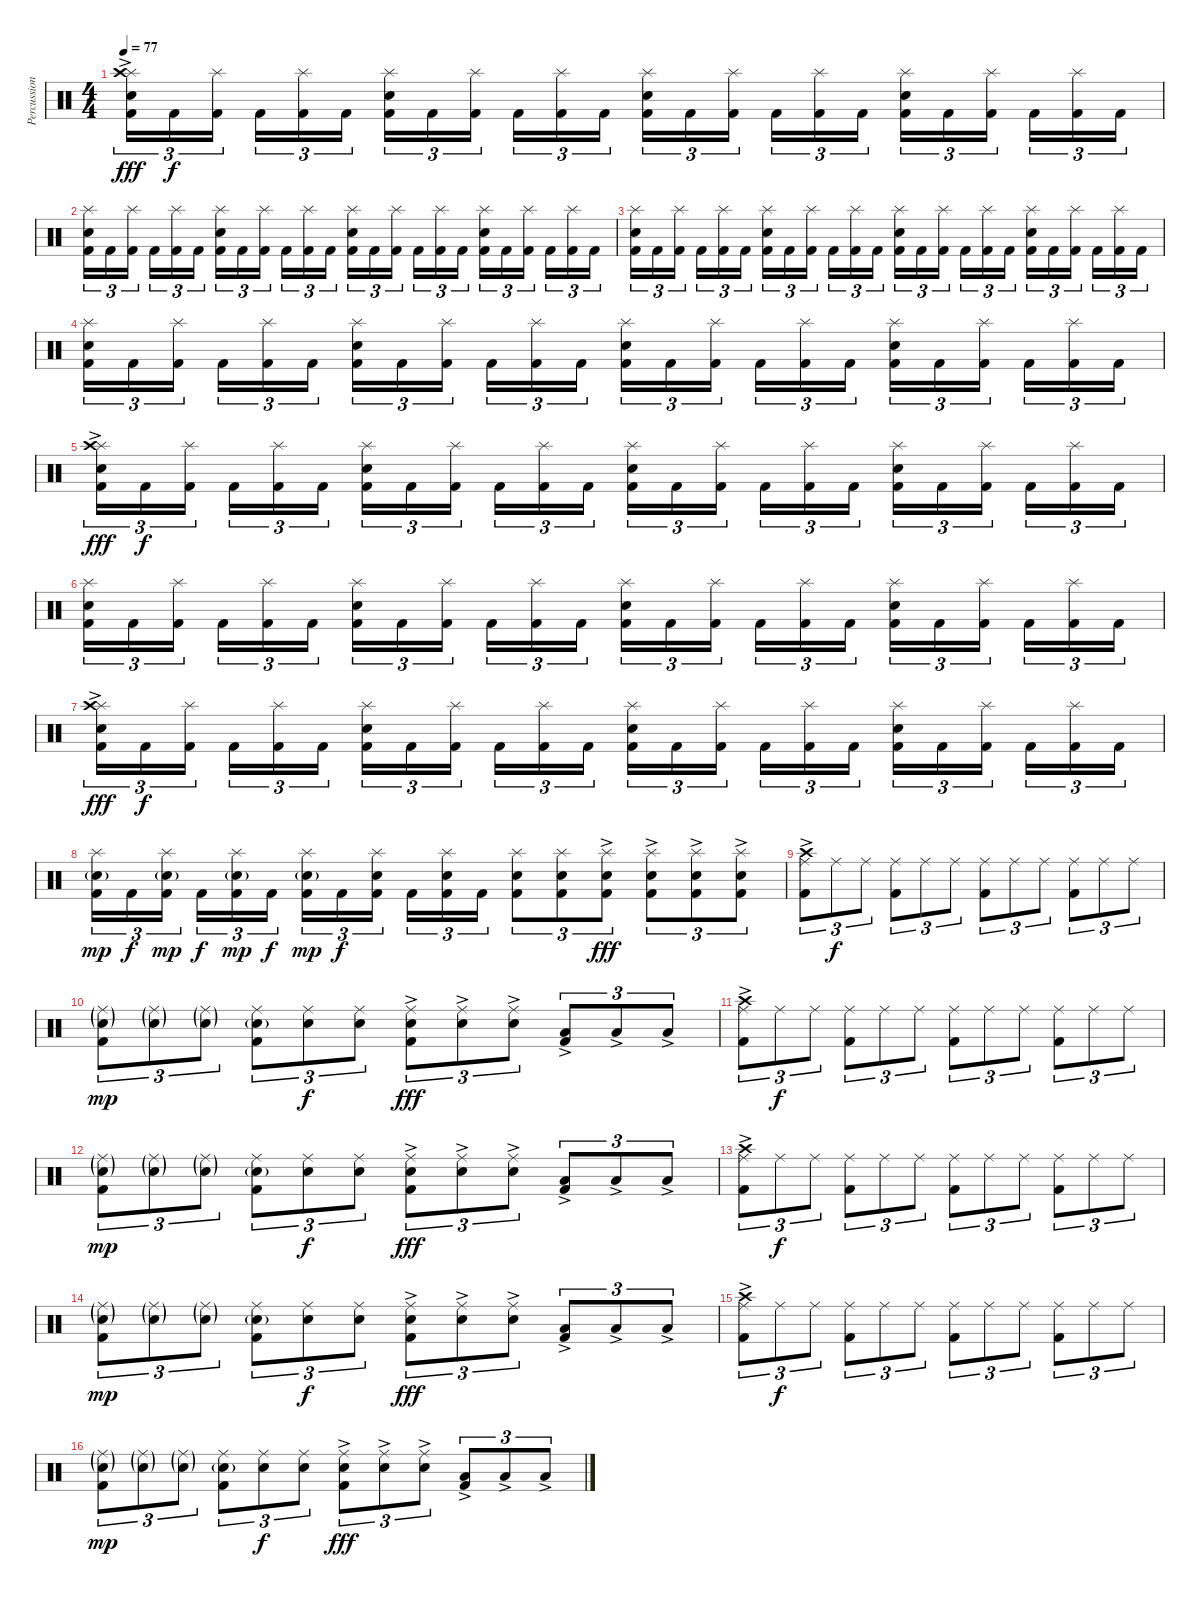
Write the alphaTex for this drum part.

\track ("Percussion" "Percussion") {instrument percussion}
\staff {score}
\articulation defaults
\ts (4 4)
\tempo 77
\clef neutral
\ks c
("Splash (hit)"{ac} "Snare (hit) 2" "Crash high (hit)" "Kick (hit) 2").16{tu (3 2) dy fff} "Kick (hit) 2".16{tu (3 2) dy f} ("Splash (hit)" "Kick (hit) 2").16{tu (3 2)} "Kick (hit) 2".16{tu (3 2)} ("Splash (hit)" "Kick (hit) 2").16{tu (3 2)} "Kick (hit) 2".16{tu (3 2)} ("Splash (hit)" "Snare (hit) 2" "Kick (hit) 2").16{tu (3 2)} "Kick (hit) 2".16{tu (3 2)} ("Splash (hit)" "Kick (hit) 2").16{tu (3 2)} "Kick (hit) 2".16{tu (3 2)} ("Splash (hit)" "Kick (hit) 2").16{tu (3 2)} "Kick (hit) 2".16{tu (3 2)} ("Splash (hit)" "Snare (hit) 2" "Kick (hit) 2").16{tu (3 2)} "Kick (hit) 2".16{tu (3 2)} ("Splash (hit)" "Kick (hit) 2").16{tu (3 2)} "Kick (hit) 2".16{tu (3 2)} ("Splash (hit)" "Kick (hit) 2").16{tu (3 2)} "Kick (hit) 2".16{tu (3 2)} ("Splash (hit)" "Snare (hit) 2" "Kick (hit) 2").16{tu (3 2)} "Kick (hit) 2".16{tu (3 2)} ("Splash (hit)" "Kick (hit) 2").16{tu (3 2)} "Kick (hit) 2".16{tu (3 2)} ("Splash (hit)" "Kick (hit) 2").16{tu (3 2)} "Kick (hit) 2".16{tu (3 2)} |
("Splash (hit)" "Snare (hit) 2" "Kick (hit) 2").16{tu (3 2)} "Kick (hit) 2".16{tu (3 2)} ("Splash (hit)" "Kick (hit) 2").16{tu (3 2)} "Kick (hit) 2".16{tu (3 2)} ("Splash (hit)" "Kick (hit) 2").16{tu (3 2)} "Kick (hit) 2".16{tu (3 2)} ("Splash (hit)" "Snare (hit) 2" "Kick (hit) 2").16{tu (3 2)} "Kick (hit) 2".16{tu (3 2)} ("Splash (hit)" "Kick (hit) 2").16{tu (3 2)} "Kick (hit) 2".16{tu (3 2)} ("Splash (hit)" "Kick (hit) 2").16{tu (3 2)} "Kick (hit) 2".16{tu (3 2)} ("Splash (hit)" "Snare (hit) 2" "Kick (hit) 2").16{tu (3 2)} "Kick (hit) 2".16{tu (3 2)} ("Splash (hit)" "Kick (hit) 2").16{tu (3 2)} "Kick (hit) 2".16{tu (3 2)} ("Splash (hit)" "Kick (hit) 2").16{tu (3 2)} "Kick (hit) 2".16{tu (3 2)} ("Splash (hit)" "Snare (hit) 2" "Kick (hit) 2").16{tu (3 2)} "Kick (hit) 2".16{tu (3 2)} ("Splash (hit)" "Kick (hit) 2").16{tu (3 2)} "Kick (hit) 2".16{tu (3 2)} ("Splash (hit)" "Kick (hit) 2").16{tu (3 2)} "Kick (hit) 2".16{tu (3 2)} |
("Splash (hit)" "Snare (hit) 2" "Kick (hit) 2").16{tu (3 2)} "Kick (hit) 2".16{tu (3 2)} ("Splash (hit)" "Kick (hit) 2").16{tu (3 2)} "Kick (hit) 2".16{tu (3 2)} ("Splash (hit)" "Kick (hit) 2").16{tu (3 2)} "Kick (hit) 2".16{tu (3 2)} ("Splash (hit)" "Snare (hit) 2" "Kick (hit) 2").16{tu (3 2)} "Kick (hit) 2".16{tu (3 2)} ("Splash (hit)" "Kick (hit) 2").16{tu (3 2)} "Kick (hit) 2".16{tu (3 2)} ("Splash (hit)" "Kick (hit) 2").16{tu (3 2)} "Kick (hit) 2".16{tu (3 2)} ("Splash (hit)" "Snare (hit) 2" "Kick (hit) 2").16{tu (3 2)} "Kick (hit) 2".16{tu (3 2)} ("Splash (hit)" "Kick (hit) 2").16{tu (3 2)} "Kick (hit) 2".16{tu (3 2)} ("Splash (hit)" "Kick (hit) 2").16{tu (3 2)} "Kick (hit) 2".16{tu (3 2)} ("Splash (hit)" "Snare (hit) 2" "Kick (hit) 2").16{tu (3 2)} "Kick (hit) 2".16{tu (3 2)} ("Splash (hit)" "Kick (hit) 2").16{tu (3 2)} "Kick (hit) 2".16{tu (3 2)} ("Splash (hit)" "Kick (hit) 2").16{tu (3 2)} "Kick (hit) 2".16{tu (3 2)} |
("Splash (hit)" "Snare (hit) 2" "Kick (hit) 2").16{tu (3 2)} "Kick (hit) 2".16{tu (3 2)} ("Splash (hit)" "Kick (hit) 2").16{tu (3 2)} "Kick (hit) 2".16{tu (3 2)} ("Splash (hit)" "Kick (hit) 2").16{tu (3 2)} "Kick (hit) 2".16{tu (3 2)} ("Splash (hit)" "Snare (hit) 2" "Kick (hit) 2").16{tu (3 2)} "Kick (hit) 2".16{tu (3 2)} ("Splash (hit)" "Kick (hit) 2").16{tu (3 2)} "Kick (hit) 2".16{tu (3 2)} ("Splash (hit)" "Kick (hit) 2").16{tu (3 2)} "Kick (hit) 2".16{tu (3 2)} ("Splash (hit)" "Snare (hit) 2" "Kick (hit) 2").16{tu (3 2)} "Kick (hit) 2".16{tu (3 2)} ("Splash (hit)" "Kick (hit) 2").16{tu (3 2)} "Kick (hit) 2".16{tu (3 2)} ("Splash (hit)" "Kick (hit) 2").16{tu (3 2)} "Kick (hit) 2".16{tu (3 2)} ("Splash (hit)" "Snare (hit) 2" "Kick (hit) 2").16{tu (3 2)} "Kick (hit) 2".16{tu (3 2)} ("Splash (hit)" "Kick (hit) 2").16{tu (3 2)} "Kick (hit) 2".16{tu (3 2)} ("Splash (hit)" "Kick (hit) 2").16{tu (3 2)} "Kick (hit) 2".16{tu (3 2)} |
("Splash (hit)"{ac} "Snare (hit) 2" "Crash high (hit)" "Kick (hit) 2").16{tu (3 2) dy fff} "Kick (hit) 2".16{tu (3 2) dy f} ("Splash (hit)" "Kick (hit) 2").16{tu (3 2)} "Kick (hit) 2".16{tu (3 2)} ("Splash (hit)" "Kick (hit) 2").16{tu (3 2)} "Kick (hit) 2".16{tu (3 2)} ("Splash (hit)" "Snare (hit) 2" "Kick (hit) 2").16{tu (3 2)} "Kick (hit) 2".16{tu (3 2)} ("Splash (hit)" "Kick (hit) 2").16{tu (3 2)} "Kick (hit) 2".16{tu (3 2)} ("Splash (hit)" "Kick (hit) 2").16{tu (3 2)} "Kick (hit) 2".16{tu (3 2)} ("Splash (hit)" "Snare (hit) 2" "Kick (hit) 2").16{tu (3 2)} "Kick (hit) 2".16{tu (3 2)} ("Splash (hit)" "Kick (hit) 2").16{tu (3 2)} "Kick (hit) 2".16{tu (3 2)} ("Splash (hit)" "Kick (hit) 2").16{tu (3 2)} "Kick (hit) 2".16{tu (3 2)} ("Splash (hit)" "Snare (hit) 2" "Kick (hit) 2").16{tu (3 2)} "Kick (hit) 2".16{tu (3 2)} ("Splash (hit)" "Kick (hit) 2").16{tu (3 2)} "Kick (hit) 2".16{tu (3 2)} ("Splash (hit)" "Kick (hit) 2").16{tu (3 2)} "Kick (hit) 2".16{tu (3 2)} |
("Splash (hit)" "Snare (hit) 2" "Kick (hit) 2").16{tu (3 2)} "Kick (hit) 2".16{tu (3 2)} ("Splash (hit)" "Kick (hit) 2").16{tu (3 2)} "Kick (hit) 2".16{tu (3 2)} ("Splash (hit)" "Kick (hit) 2").16{tu (3 2)} "Kick (hit) 2".16{tu (3 2)} ("Splash (hit)" "Snare (hit) 2" "Kick (hit) 2").16{tu (3 2)} "Kick (hit) 2".16{tu (3 2)} ("Splash (hit)" "Kick (hit) 2").16{tu (3 2)} "Kick (hit) 2".16{tu (3 2)} ("Splash (hit)" "Kick (hit) 2").16{tu (3 2)} "Kick (hit) 2".16{tu (3 2)} ("Splash (hit)" "Snare (hit) 2" "Kick (hit) 2").16{tu (3 2)} "Kick (hit) 2".16{tu (3 2)} ("Splash (hit)" "Kick (hit) 2").16{tu (3 2)} "Kick (hit) 2".16{tu (3 2)} ("Splash (hit)" "Kick (hit) 2").16{tu (3 2)} "Kick (hit) 2".16{tu (3 2)} ("Splash (hit)" "Snare (hit) 2" "Kick (hit) 2").16{tu (3 2)} "Kick (hit) 2".16{tu (3 2)} ("Splash (hit)" "Kick (hit) 2").16{tu (3 2)} "Kick (hit) 2".16{tu (3 2)} ("Splash (hit)" "Kick (hit) 2").16{tu (3 2)} "Kick (hit) 2".16{tu (3 2)} |
("Splash (hit)"{ac} "Snare (hit) 2" "Crash high (hit)" "Kick (hit) 2").16{tu (3 2) dy fff} "Kick (hit) 2".16{tu (3 2) dy f} ("Splash (hit)" "Kick (hit) 2").16{tu (3 2)} "Kick (hit) 2".16{tu (3 2)} ("Splash (hit)" "Kick (hit) 2").16{tu (3 2)} "Kick (hit) 2".16{tu (3 2)} ("Splash (hit)" "Snare (hit) 2" "Kick (hit) 2").16{tu (3 2)} "Kick (hit) 2".16{tu (3 2)} ("Splash (hit)" "Kick (hit) 2").16{tu (3 2)} "Kick (hit) 2".16{tu (3 2)} ("Splash (hit)" "Kick (hit) 2").16{tu (3 2)} "Kick (hit) 2".16{tu (3 2)} ("Splash (hit)" "Snare (hit) 2" "Kick (hit) 2").16{tu (3 2)} "Kick (hit) 2".16{tu (3 2)} ("Splash (hit)" "Kick (hit) 2").16{tu (3 2)} "Kick (hit) 2".16{tu (3 2)} ("Splash (hit)" "Kick (hit) 2").16{tu (3 2)} "Kick (hit) 2".16{tu (3 2)} ("Splash (hit)" "Snare (hit) 2" "Kick (hit) 2").16{tu (3 2)} "Kick (hit) 2".16{tu (3 2)} ("Splash (hit)" "Kick (hit) 2").16{tu (3 2)} "Kick (hit) 2".16{tu (3 2)} ("Splash (hit)" "Kick (hit) 2").16{tu (3 2)} "Kick (hit) 2".16{tu (3 2)} |
("Splash (hit)" "Snare (hit) 2"{g} "Kick (hit) 2").16{tu (3 2) dy mp} "Kick (hit) 2".16{tu (3 2) dy f} ("Splash (hit)" "Snare (hit) 2"{g} "Kick (hit) 2").16{tu (3 2) dy mp} "Kick (hit) 2".16{tu (3 2) dy f} ("Splash (hit)" "Snare (hit) 2"{g} "Kick (hit) 2").16{tu (3 2) dy mp} "Kick (hit) 2".16{tu (3 2) dy f} ("Splash (hit)" "Snare (hit) 2"{g} "Kick (hit) 2").16{tu (3 2) dy mp} "Kick (hit) 2".16{tu (3 2) dy f} ("Splash (hit)" "Snare (hit) 2" "Kick (hit) 2").16{tu (3 2)} "Kick (hit) 2".16{tu (3 2)} ("Splash (hit)" "Snare (hit) 2" "Kick (hit) 2").16{tu (3 2)} "Kick (hit) 2".16{tu (3 2)} ("Splash (hit)" "Snare (hit) 2" "Kick (hit) 2").8{tu (3 2)} ("Splash (hit)" "Snare (hit) 2" "Kick (hit) 2").8{tu (3 2)} ("Splash (hit)" "Snare (hit) 2"{ac} "Kick (hit) 2").8{tu (3 2) dy fff} ("Splash (hit)" "Snare (hit) 2"{ac} "Kick (hit) 2").8{tu (3 2)} ("Splash (hit)" "Snare (hit) 2"{ac} "Kick (hit) 2").8{tu (3 2)} ("Splash (hit)" "Snare (hit) 2"{ac} "Kick (hit) 2").8{tu (3 2)} |
("Ride (middle)"{ac} "Crash high (hit)"{ac} "Kick (hit) 2").8{tu (3 2)} "Ride (middle)".8{tu (3 2) dy f} "Ride (middle)".8{tu (3 2)} ("Ride (middle)" "Kick (hit) 2").8{tu (3 2)} "Ride (middle)".8{tu (3 2)} "Ride (middle)".8{tu (3 2)} ("Ride (middle)" "Kick (hit) 2").8{tu (3 2)} "Ride (middle)".8{tu (3 2)} "Ride (middle)".8{tu (3 2)} ("Ride (middle)" "Kick (hit) 2").8{tu (3 2)} "Ride (middle)".8{tu (3 2)} "Ride (middle)".8{tu (3 2)} |
("Ride (middle)"{g} "Snare (hit) 2"{g} "Kick (hit) 2").8{tu (3 2) dy mp} ("Ride (middle)"{g} "Snare (hit) 2"{g}).8{tu (3 2)} ("Ride (middle)"{g} "Snare (hit) 2"{g}).8{tu (3 2)} ("Ride (middle)" "Snare (hit) 2"{g} "Kick (hit) 2").8{tu (3 2)} ("Ride (middle)" "Snare (hit) 2").8{tu (3 2) dy f} ("Ride (middle)" "Snare (hit) 2").8{tu (3 2)} ("Ride (middle)"{ac} "Snare (hit) 2" "Kick (hit) 2").8{tu (3 2) dy fff} ("Ride (middle)"{ac} "Snare (hit) 2"{ac}).8{tu (3 2)} ("Ride (middle)"{ac} "Snare (hit) 2"{ac}).8{tu (3 2)} ("Low Tom (hit)"{ac} "Kick (hit) 2").8{tu (3 2)} "Low Tom (hit)"{ac}.8{tu (3 2)} "Low Tom (hit)"{ac}.8{tu (3 2)} |
("Ride (middle)"{ac} "Crash high (hit)"{ac} "Kick (hit) 2").8{tu (3 2)} "Ride (middle)".8{tu (3 2) dy f} "Ride (middle)".8{tu (3 2)} ("Ride (middle)" "Kick (hit) 2").8{tu (3 2)} "Ride (middle)".8{tu (3 2)} "Ride (middle)".8{tu (3 2)} ("Ride (middle)" "Kick (hit) 2").8{tu (3 2)} "Ride (middle)".8{tu (3 2)} "Ride (middle)".8{tu (3 2)} ("Ride (middle)" "Kick (hit) 2").8{tu (3 2)} "Ride (middle)".8{tu (3 2)} "Ride (middle)".8{tu (3 2)} |
("Ride (middle)"{g} "Snare (hit) 2"{g} "Kick (hit) 2").8{tu (3 2) dy mp} ("Ride (middle)"{g} "Snare (hit) 2"{g}).8{tu (3 2)} ("Ride (middle)"{g} "Snare (hit) 2"{g}).8{tu (3 2)} ("Ride (middle)" "Snare (hit) 2"{g} "Kick (hit) 2").8{tu (3 2)} ("Ride (middle)" "Snare (hit) 2").8{tu (3 2) dy f} ("Ride (middle)" "Snare (hit) 2").8{tu (3 2)} ("Ride (middle)"{ac} "Snare (hit) 2" "Kick (hit) 2").8{tu (3 2) dy fff} ("Ride (middle)"{ac} "Snare (hit) 2"{ac}).8{tu (3 2)} ("Ride (middle)"{ac} "Snare (hit) 2"{ac}).8{tu (3 2)} ("Low Tom (hit)"{ac} "Kick (hit) 2").8{tu (3 2)} "Low Tom (hit)"{ac}.8{tu (3 2)} "Low Tom (hit)"{ac}.8{tu (3 2)} |
("Ride (middle)"{ac} "Crash high (hit)"{ac} "Kick (hit) 2").8{tu (3 2)} "Ride (middle)".8{tu (3 2) dy f} "Ride (middle)".8{tu (3 2)} ("Ride (middle)" "Kick (hit) 2").8{tu (3 2)} "Ride (middle)".8{tu (3 2)} "Ride (middle)".8{tu (3 2)} ("Ride (middle)" "Kick (hit) 2").8{tu (3 2)} "Ride (middle)".8{tu (3 2)} "Ride (middle)".8{tu (3 2)} ("Ride (middle)" "Kick (hit) 2").8{tu (3 2)} "Ride (middle)".8{tu (3 2)} "Ride (middle)".8{tu (3 2)} |
("Ride (middle)"{g} "Snare (hit) 2"{g} "Kick (hit) 2").8{tu (3 2) dy mp} ("Ride (middle)"{g} "Snare (hit) 2"{g}).8{tu (3 2)} ("Ride (middle)"{g} "Snare (hit) 2"{g}).8{tu (3 2)} ("Ride (middle)" "Snare (hit) 2"{g} "Kick (hit) 2").8{tu (3 2)} ("Ride (middle)" "Snare (hit) 2").8{tu (3 2) dy f} ("Ride (middle)" "Snare (hit) 2").8{tu (3 2)} ("Ride (middle)"{ac} "Snare (hit) 2" "Kick (hit) 2").8{tu (3 2) dy fff} ("Ride (middle)"{ac} "Snare (hit) 2"{ac}).8{tu (3 2)} ("Ride (middle)"{ac} "Snare (hit) 2"{ac}).8{tu (3 2)} ("Low Tom (hit)"{ac} "Kick (hit) 2").8{tu (3 2)} "Low Tom (hit)"{ac}.8{tu (3 2)} "Low Tom (hit)"{ac}.8{tu (3 2)} |
("Ride (middle)"{ac} "Crash high (hit)"{ac} "Kick (hit) 2").8{tu (3 2)} "Ride (middle)".8{tu (3 2) dy f} "Ride (middle)".8{tu (3 2)} ("Ride (middle)" "Kick (hit) 2").8{tu (3 2)} "Ride (middle)".8{tu (3 2)} "Ride (middle)".8{tu (3 2)} ("Ride (middle)" "Kick (hit) 2").8{tu (3 2)} "Ride (middle)".8{tu (3 2)} "Ride (middle)".8{tu (3 2)} ("Ride (middle)" "Kick (hit) 2").8{tu (3 2)} "Ride (middle)".8{tu (3 2)} "Ride (middle)".8{tu (3 2)} |
("Ride (middle)"{g} "Snare (hit) 2"{g} "Kick (hit) 2").8{tu (3 2) dy mp} ("Ride (middle)"{g} "Snare (hit) 2"{g}).8{tu (3 2)} ("Ride (middle)"{g} "Snare (hit) 2"{g}).8{tu (3 2)} ("Ride (middle)" "Snare (hit) 2"{g} "Kick (hit) 2").8{tu (3 2)} ("Ride (middle)" "Snare (hit) 2").8{tu (3 2) dy f} ("Ride (middle)" "Snare (hit) 2").8{tu (3 2)} ("Ride (middle)"{ac} "Snare (hit) 2" "Kick (hit) 2").8{tu (3 2) dy fff} ("Ride (middle)"{ac} "Snare (hit) 2"{ac}).8{tu (3 2)} ("Ride (middle)"{ac} "Snare (hit) 2"{ac}).8{tu (3 2)} ("Low Tom (hit)"{ac} "Kick (hit) 2").8{tu (3 2)} "Low Tom (hit)"{ac}.8{tu (3 2)} "Low Tom (hit)"{ac}.8{tu (3 2)}
